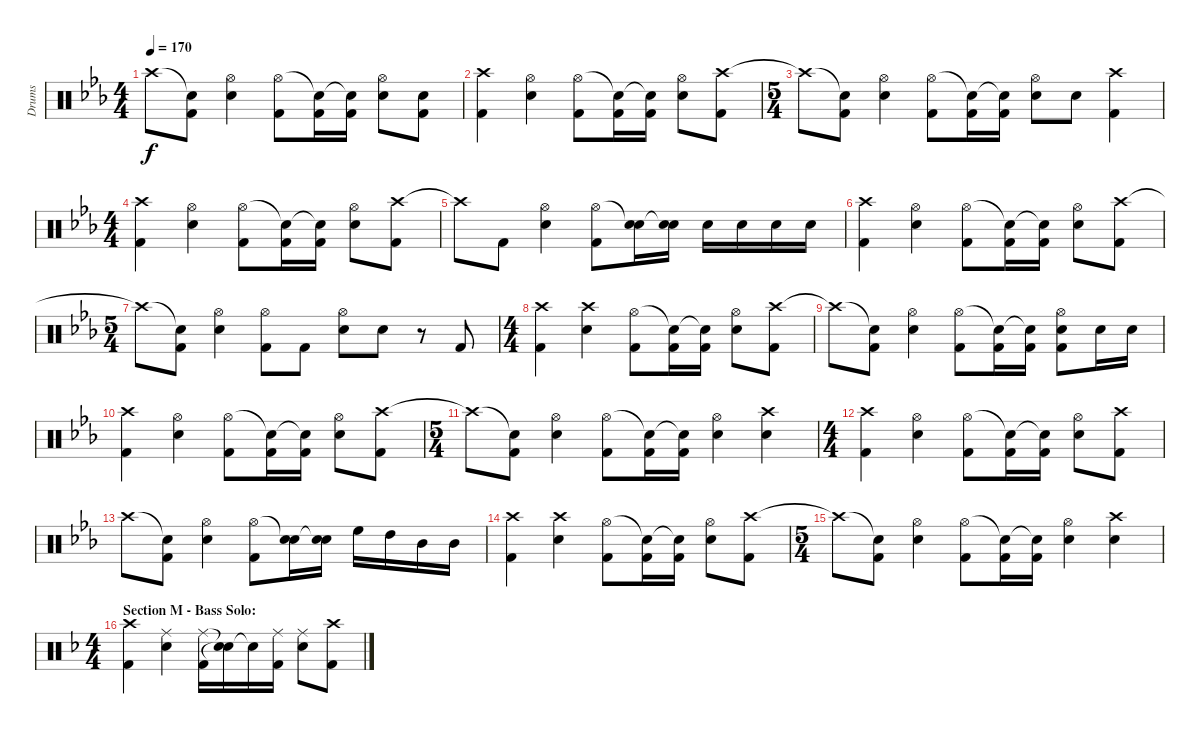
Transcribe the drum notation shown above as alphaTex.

\track ("Drums" "Drums") {instrument percussion}
\staff {score}
\articulation defaults
\ts (4 4)
\tempo 170
\clef neutral
\ks eb "Crash high (hit)"{t}.8{dy f}
("Snare (hit)"{t} "Kick (hit) 2").8 ("Hi-Hat (open)" "Snare (hit) 2").4 ("Hi-Hat (open)" "Kick (hit) 2").8 ("Snare (hit)"{t} "Kick (hit) 2").16 ("Snare (hit)"{t} "Kick (hit) 2").16 ("Hi-Hat (open)" "Snare (hit) 2").8 ("Snare (hit) 2" "Kick (hit) 2").8 |
("Crash high (hit)" "Kick (hit) 2").4 ("Hi-Hat (open)" "Snare (hit) 2").4 ("Hi-Hat (open)" "Kick (hit) 2").8 ("Snare (hit)"{t} "Kick (hit) 2").16 ("Snare (hit)"{t} "Kick (hit) 2").16 ("Hi-Hat (open)" "Snare (hit) 2").8 ("Crash high (hit)" "Kick (hit) 2").8 |
\ts (5 4)
"Crash high (hit)"{t}.8 ("Snare (hit)"{t} "Kick (hit) 2").8 ("Hi-Hat (open)" "Snare (hit) 2").4 ("Hi-Hat (open)" "Kick (hit) 2").8 ("Snare (hit)"{t} "Kick (hit) 2").16 ("Snare (hit)"{t} "Kick (hit) 2").16 ("Hi-Hat (open)" "Snare (hit) 2").8 "Snare (hit) 2".8 ("Crash high (hit)" "Kick (hit) 2").4 |
\ts (4 4)
("Crash high (hit)" "Kick (hit) 2").4 ("Hi-Hat (open)" "Snare (hit) 2").4 ("Hi-Hat (open)" "Kick (hit) 2").8 ("Snare (hit)"{t} "Kick (hit) 2").16 ("Snare (hit)"{t} "Kick (hit) 2").16 ("Hi-Hat (open)" "Snare (hit) 2").8 ("Crash high (hit)" "Kick (hit) 2").8 |
"Crash high (hit)"{t}.8 "Kick (hit) 2".8 ("Hi-Hat (open)" "Snare (hit) 2").4 ("Hi-Hat (open)" "Kick (hit) 2").8 ("Snare (hit)"{t} "Snare (hit) 2").16 ("Snare (hit)"{t} "Snare (hit) 2").16 "Snare (hit) 2".16 "Snare (hit) 2".16 "Snare (hit) 2".16 "Snare (hit) 2".16 |
("Crash high (hit)" "Kick (hit) 2").4 ("Hi-Hat (open)" "Snare (hit) 2").4 ("Hi-Hat (open)" "Kick (hit) 2").8 ("Snare (hit)"{t} "Kick (hit) 2").16 ("Snare (hit)"{t} "Kick (hit) 2").16 ("Hi-Hat (open)" "Snare (hit) 2").8 ("Crash high (hit)" "Kick (hit) 2").8 |
\ts (5 4)
"Crash high (hit)"{t}.8 ("Snare (hit)"{t} "Kick (hit) 2").8 ("Hi-Hat (open)" "Snare (hit) 2").4 ("Hi-Hat (open)" "Kick (hit) 2").8 "Kick (hit) 2".8 ("Hi-Hat (open)" "Snare (hit) 2").8 "Snare (hit) 2".8 r.8 "Kick (hit) 2".8 |
\ts (4 4)
("Crash high (hit)" "Kick (hit) 2").4 ("Crash high (hit)" "Snare (hit) 2").4 ("Hi-Hat (open)" "Kick (hit) 2").8 ("Snare (hit)"{t} "Kick (hit) 2").16 ("Snare (hit)"{t} "Kick (hit) 2").16 ("Hi-Hat (open)" "Snare (hit) 2").8 ("Crash high (hit)" "Kick (hit) 2").8 |
"Crash high (hit)"{t}.8 ("Snare (hit)"{t} "Kick (hit) 2").8 ("Hi-Hat (open)" "Snare (hit) 2").4 ("Hi-Hat (open)" "Kick (hit) 2").8 ("Snare (hit)"{t} "Kick (hit) 2").16 ("Snare (hit)"{t} "Kick (hit) 2").16 ("Hi-Hat (open)" "Snare (hit) 2" "Kick (hit) 2").8 "Snare (hit) 2".16 "Snare (hit) 2".16 |
("Crash high (hit)" "Kick (hit) 2").4 ("Hi-Hat (open)" "Snare (hit) 2").4 ("Hi-Hat (open)" "Kick (hit) 2").8 ("Snare (hit)"{t} "Kick (hit) 2").16 ("Snare (hit)"{t} "Kick (hit) 2").16 ("Hi-Hat (open)" "Snare (hit) 2").8 ("Crash high (hit)" "Kick (hit) 2").8 |
\ts (5 4)
"Crash high (hit)"{t}.8 ("Snare (hit)"{t} "Kick (hit) 2").8 ("Hi-Hat (open)" "Snare (hit) 2").4 ("Hi-Hat (open)" "Kick (hit) 2").8 ("Snare (hit)"{t} "Kick (hit) 2").16 ("Snare (hit)"{t} "Kick (hit) 2").16 ("Hi-Hat (open)" "Snare (hit) 2").4 ("Crash high (hit)" "Snare (hit) 2").4 |
\ts (4 4)
("Crash high (hit)" "Kick (hit) 2").4 ("Hi-Hat (open)" "Snare (hit) 2").4 ("Hi-Hat (open)" "Kick (hit) 2").8 ("Snare (hit)"{t} "Kick (hit) 2").16 ("Snare (hit)"{t} "Kick (hit) 2").16 ("Hi-Hat (open)" "Snare (hit) 2").8 ("Crash high (hit)" "Kick (hit) 2").8 |
"Crash high (hit)".8 ("Snare (hit)"{t} "Kick (hit) 2").8 ("Hi-Hat (open)" "Snare (hit) 2").4 ("Hi-Hat (open)" "Kick (hit) 2").8 ("Snare (hit)"{t} "Snare (hit) 2").16 ("Snare (hit)"{t} "Snare (hit) 2").16 "High Floor Tom (hit)".16 "High Tom (hit)".16 "Mid Tom (hit)".16 "Mid Tom (hit)".16 |
("Crash high (hit)" "Kick (hit) 2").4 ("Crash high (hit)" "Snare (hit) 2").4 ("Hi-Hat (open)" "Kick (hit) 2").8 ("Snare (hit)"{t} "Kick (hit) 2").16 ("Snare (hit)"{t} "Kick (hit) 2").16 ("Hi-Hat (open)" "Snare (hit) 2").8 ("Crash high (hit)" "Kick (hit) 2").8 |
\ts (5 4)
"Crash high (hit)"{t}.8 ("Snare (hit)"{t} "Kick (hit) 2").8 ("Hi-Hat (open)" "Snare (hit) 2").4 ("Hi-Hat (open)" "Kick (hit) 2").8 ("Snare (hit)"{t} "Kick (hit) 2").16 ("Snare (hit)"{t} "Kick (hit) 2").16 ("Hi-Hat (open)" "Snare (hit) 2").4 ("Crash high (hit)" "Snare (hit) 2").4 |
\ts (4 4)
\section ("" "Section M - Bass Solo:")
\ks f
("Crash high (hit)" "Kick (hit) 2").4 ("Ride (middle)" "Snare (hit) 2").4 ("Ride (middle)" "Kick (hit) 2").16 ("Snare (hit)"{t} "Snare (hit)"{t}).16 "Snare (hit)"{t}.16 ("Ride (middle)" "Kick (hit) 2").16 ("Ride (middle)" "Snare (hit) 2").8 ("Crash high (hit)" "Kick (hit) 2").8
